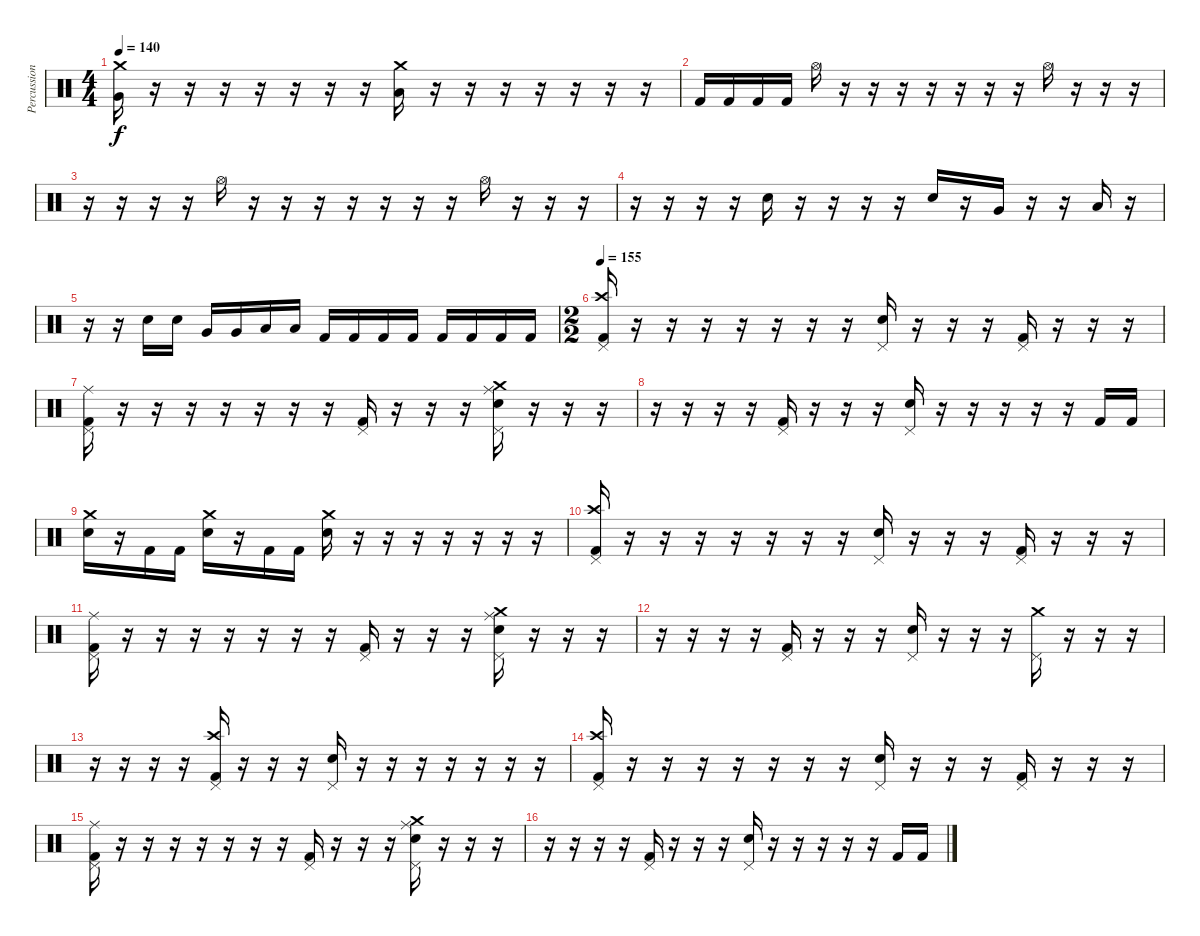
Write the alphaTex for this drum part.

\track ("Percussion" "Percussion") {instrument percussion}
\staff {score}
\articulation defaults
\ts (4 4)
\tempo 140
\clef neutral
\ks c
("Crash medium (hit)" "Very Low Tom (hit)").16{dy f} r.16 r.16 r.16 r.16 r.16 r.16 r.16 ("Crash medium (hit)" "Low Floor Tom (hit)").16 r.16 r.16 r.16 r.16 r.16 r.16 r.16 |
"Kick (hit) 2".16 "Kick (hit) 2".16 "Kick (hit) 2".16 "Kick (hit) 2".16 "Hi-Hat (open)".16 r.16 r.16 r.16 r.16 r.16 r.16 r.16 "Hi-Hat (open)".16 r.16 r.16 r.16 |
r.16 r.16 r.16 r.16 "Hi-Hat (open)".16 r.16 r.16 r.16 r.16 r.16 r.16 r.16 "Hi-Hat (open)".16 r.16 r.16 r.16 |
r.16 r.16 r.16 r.16 "Snare (hit) 2".16 r.16 r.16 r.16 r.16 "Snare (hit) 2".16 r.16 "Very Low Tom (hit)".16 r.16 r.16 "Low Floor Tom (hit)".16 r.16 |
r.16 r.16 "Snare (hit) 2".16 "Snare (hit) 2".16 "Very Low Tom (hit)".16 "Very Low Tom (hit)".16 "Low Floor Tom (hit)".16 "Low Floor Tom (hit)".16 "Kick (hit) 2".16 "Kick (hit) 2".16 "Kick (hit) 2".16 "Kick (hit) 2".16 "Kick (hit) 2".16 "Kick (hit) 2".16 "Kick (hit) 2".16 "Kick (hit) 2".16 |
\ts (2 2)
\tempo 155
("Crash high (hit)" "Pedal Hi-Hat (hit)" "Kick (hit) 2").16 r.16 r.16 r.16 r.16 r.16 r.16 r.16 ("Pedal Hi-Hat (hit)" "Snare (hit) 2").16 r.16 r.16 r.16 ("Pedal Hi-Hat (hit)" "Kick (hit) 2").16 r.16 r.16 r.16 |
("Ride (middle)" "Pedal Hi-Hat (hit)" "Kick (hit) 2").16 r.16 r.16 r.16 r.16 r.16 r.16 r.16 ("Pedal Hi-Hat (hit)" "Kick (hit) 2").16 r.16 r.16 r.16 ("Ride (middle)" "Crash medium (hit)" "Pedal Hi-Hat (hit)" "Snare (hit) 2").16 r.16 r.16 r.16 |
r.16 r.16 r.16 r.16 ("Pedal Hi-Hat (hit)" "Kick (hit) 2").16 r.16 r.16 r.16 ("Pedal Hi-Hat (hit)" "Snare (hit) 2").16 r.16 r.16 r.16 r.16 r.16 "Kick (hit) 2".16 "Kick (hit) 2".16 |
("Crash medium (hit)" "Snare (hit) 2").16 r.16 "Kick (hit) 2".16 "Kick (hit) 2".16 ("Crash medium (hit)" "Snare (hit) 2").16 r.16 "Kick (hit) 2".16 "Kick (hit) 2".16 ("Crash medium (hit)" "Snare (hit) 2").16 r.16 r.16 r.16 r.16 r.16 r.16 r.16 |
("Crash high (hit)" "Pedal Hi-Hat (hit)" "Kick (hit) 2").16 r.16 r.16 r.16 r.16 r.16 r.16 r.16 ("Pedal Hi-Hat (hit)" "Snare (hit) 2").16 r.16 r.16 r.16 ("Pedal Hi-Hat (hit)" "Kick (hit) 2").16 r.16 r.16 r.16 |
("Ride (middle)" "Pedal Hi-Hat (hit)" "Kick (hit) 2").16 r.16 r.16 r.16 r.16 r.16 r.16 r.16 ("Pedal Hi-Hat (hit)" "Kick (hit) 2").16 r.16 r.16 r.16 ("Ride (middle)" "Crash medium (hit)" "Pedal Hi-Hat (hit)" "Snare (hit) 2").16 r.16 r.16 r.16 |
r.16 r.16 r.16 r.16 ("Pedal Hi-Hat (hit)" "Kick (hit) 2").16 r.16 r.16 r.16 ("Pedal Hi-Hat (hit)" "Snare (hit) 2").16 r.16 r.16 r.16 ("Crash medium (hit)" "Pedal Hi-Hat (hit)").16 r.16 r.16 r.16 |
r.16 r.16 r.16 r.16 ("Crash high (hit)" "Pedal Hi-Hat (hit)" "Kick (hit) 2").16 r.16 r.16 r.16 ("Pedal Hi-Hat (hit)" "Snare (hit) 2").16 r.16 r.16 r.16 r.16 r.16 r.16 r.16 |
("Crash high (hit)" "Pedal Hi-Hat (hit)" "Kick (hit) 2").16 r.16 r.16 r.16 r.16 r.16 r.16 r.16 ("Pedal Hi-Hat (hit)" "Snare (hit) 2").16 r.16 r.16 r.16 ("Pedal Hi-Hat (hit)" "Kick (hit) 2").16 r.16 r.16 r.16 |
("Ride (middle)" "Pedal Hi-Hat (hit)" "Kick (hit) 2").16 r.16 r.16 r.16 r.16 r.16 r.16 r.16 ("Pedal Hi-Hat (hit)" "Kick (hit) 2").16 r.16 r.16 r.16 ("Ride (middle)" "Crash medium (hit)" "Pedal Hi-Hat (hit)" "Snare (hit) 2").16 r.16 r.16 r.16 |
r.16 r.16 r.16 r.16 ("Pedal Hi-Hat (hit)" "Kick (hit) 2").16 r.16 r.16 r.16 ("Pedal Hi-Hat (hit)" "Snare (hit) 2").16 r.16 r.16 r.16 r.16 r.16 "Kick (hit) 2".16 "Kick (hit) 2".16
